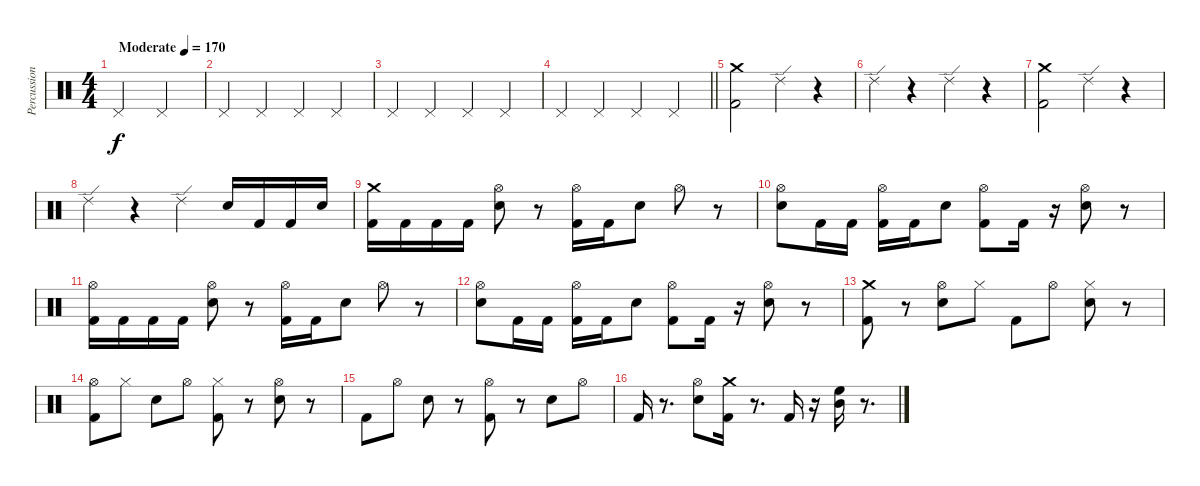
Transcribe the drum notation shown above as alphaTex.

\track ("Percussion" "Percussion") {instrument percussion}
\staff {score}
\articulation defaults
\ts (4 4)
\tempo (170 "Moderate")
\clef neutral
\ks c "Pedal Hi-Hat (hit)".2{dy f} "Pedal Hi-Hat (hit)".2
|
"Pedal Hi-Hat (hit)".4 "Pedal Hi-Hat (hit)".4 "Pedal Hi-Hat (hit)".4 "Pedal Hi-Hat (hit)".4 |
"Pedal Hi-Hat (hit)".4 "Pedal Hi-Hat (hit)".4 "Pedal Hi-Hat (hit)".4 "Pedal Hi-Hat (hit)".4 |
\barLineRight lightlight "Pedal Hi-Hat (hit)".4 "Pedal Hi-Hat (hit)".4 "Pedal Hi-Hat (hit)".4 "Pedal Hi-Hat (hit)".4
|
\section ("" "")
("Crash medium (hit)" "Kick (hit) 2").2 "Ride (edge) 2".4 r.4 |
"Ride (edge) 2".4 r.4 "Ride (edge) 2".4 r.4 |
("Crash medium (hit)" "Kick (hit) 2").2 "Ride (edge) 2".4 r.4 |
"Ride (edge) 2".4 r.4 "Ride (edge) 2".4 "Electric Snare (hit)".16 "Kick (hit) 2".16 "Kick (hit) 2".16 "Electric Snare (hit)".16 |
("Kick (hit) 2" "Crash medium (hit)").16 "Kick (hit) 2".16 "Kick (hit) 2".16 "Kick (hit) 2".16 ("Hi-Hat (open)" "Electric Snare (hit)").8 r.8 ("Kick (hit) 2" "Hi-Hat (open)").16 "Kick (hit) 2".16 "Electric Snare (hit)".8 "Hi-Hat (open)".8 r.8 |
("Hi-Hat (open)" "Electric Snare (hit)").8 "Kick (hit) 2".16 "Kick (hit) 2".16 ("Kick (hit) 2" "Hi-Hat (open)").16 "Kick (hit) 2".16 "Electric Snare (hit)".8 ("Kick (hit) 2" "Hi-Hat (open)").8 "Kick (hit) 2".16 r.16 ("Hi-Hat (open)" "Electric Snare (hit)").8 r.8 |
("Kick (hit) 2" "Hi-Hat (open)").16 "Kick (hit) 2".16 "Kick (hit) 2".16 "Kick (hit) 2".16 ("Hi-Hat (open)" "Electric Snare (hit)").8 r.8 ("Kick (hit) 2" "Hi-Hat (open)").16 "Kick (hit) 2".16 "Electric Snare (hit)".8 "Hi-Hat (open)".8 r.8 |
("Hi-Hat (open)" "Electric Snare (hit)").8 "Kick (hit) 2".16 "Kick (hit) 2".16 ("Kick (hit) 2" "Hi-Hat (open)").16 "Kick (hit) 2".16 "Electric Snare (hit)".8 ("Kick (hit) 2" "Hi-Hat (open)").8 "Kick (hit) 2".16 r.16 ("Hi-Hat (open)" "Electric Snare (hit)").8 r.8 |
("Kick (hit) 2" "Crash medium (hit)").8 r.8 ("Electric Snare (hit)" "Hi-Hat (open)").8 "Hi-Hat (closed)".8 "Kick (hit) 2".8 "Hi-Hat (open)".8 ("Hi-Hat (closed)" "Electric Snare (hit)").8 r.8 |
("Hi-Hat (open)" "Kick (hit) 2").8 "Hi-Hat (closed)".8 "Electric Snare (hit)".8 "Hi-Hat (open)".8 ("Hi-Hat (closed)" "Kick (hit) 2").8 r.8 ("Hi-Hat (open)" "Electric Snare (hit)").8 r.8 |
"Kick (hit) 2".8 "Hi-Hat (open)".8 "Electric Snare (hit)".8 r.8 ("Hi-Hat (open)" "Kick (hit) 2").8 r.8 "Electric Snare (hit)".8 "Hi-Hat (open)".8 |
"Kick (hit) 2".16 r.8{d} ("Electric Snare (hit)" "Hi-Hat (open)").8 ("Crash medium (hit)" "Kick (hit) 2").16 r.8{d} "Kick (hit) 2".16 r.16 ("Mid Tom (hit)" "High Floor Tom (hit)").16 r.8{d}
